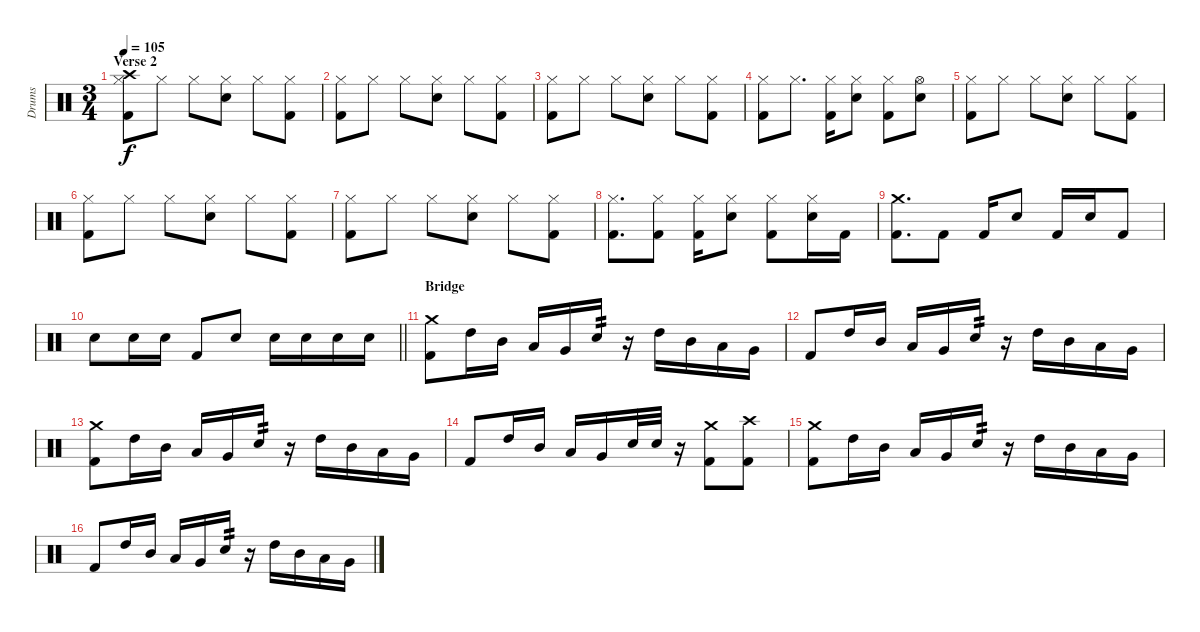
\track ("Drums" "Drums") {instrument percussion}
\staff {score}
\articulation defaults
\ts (3 4)
\section ("" "Verse 2")
\tempo 105
\clef neutral
\ks c
("Crash high (hit)" "Hi-Hat (closed)" "Kick (hit) 2").8{dy f} "Hi-Hat (closed)".8 "Hi-Hat (closed)".8 ("Hi-Hat (closed)" "Electric Snare (hit)").8 "Hi-Hat (closed)".8 ("Hi-Hat (closed)" "Kick (hit) 2").8 |
("Hi-Hat (closed)" "Kick (hit) 2").8 "Hi-Hat (closed)".8 "Hi-Hat (closed)".8 ("Hi-Hat (closed)" "Electric Snare (hit)").8 "Hi-Hat (closed)".8 ("Hi-Hat (closed)" "Kick (hit) 2").8 |
("Hi-Hat (closed)" "Kick (hit) 2").8 "Hi-Hat (closed)".8 "Hi-Hat (closed)".8 ("Hi-Hat (closed)" "Electric Snare (hit)").8 "Hi-Hat (closed)".8 ("Hi-Hat (closed)" "Kick (hit) 2").8 |
("Hi-Hat (closed)" "Kick (hit) 2").8 "Hi-Hat (closed)".8{d} ("Hi-Hat (closed)" "Kick (hit) 2").16 ("Hi-Hat (closed)" "Electric Snare (hit)").8 ("Hi-Hat (closed)" "Kick (hit) 2").8 ("Hi-Hat (open)" "Electric Snare (hit)").8 |
("Hi-Hat (closed)" "Kick (hit) 2").8 "Hi-Hat (closed)".8 "Hi-Hat (closed)".8 ("Hi-Hat (closed)" "Electric Snare (hit)").8 "Hi-Hat (closed)".8 ("Hi-Hat (closed)" "Kick (hit) 2").8 |
("Hi-Hat (closed)" "Kick (hit) 2").8 "Hi-Hat (closed)".8 "Hi-Hat (closed)".8 ("Hi-Hat (closed)" "Electric Snare (hit)").8 "Hi-Hat (closed)".8 ("Hi-Hat (closed)" "Kick (hit) 2").8 |
("Hi-Hat (closed)" "Kick (hit) 2").8 "Hi-Hat (closed)".8 "Hi-Hat (closed)".8 ("Hi-Hat (closed)" "Electric Snare (hit)").8 "Hi-Hat (closed)".8 ("Hi-Hat (closed)" "Kick (hit) 2").8 |
("Hi-Hat (closed)" "Kick (hit) 2").8{d} ("Hi-Hat (closed)" "Kick (hit) 2").8 ("Hi-Hat (closed)" "Kick (hit) 2").16 ("Hi-Hat (closed)" "Electric Snare (hit)").8 ("Hi-Hat (closed)" "Kick (hit) 2").8 ("Hi-Hat (closed)" "Electric Snare (hit)").16 "Kick (hit) 2".16 |
("Crash medium (hit)" "Kick (hit) 2").8{d} "Kick (hit) 2".8 "Kick (hit) 2".16 "Electric Snare (hit)".8 "Kick (hit) 2".16 "Electric Snare (hit)".16 "Kick (hit) 2".8 |
\barLineRight lightlight "Electric Snare (hit)".8 "Electric Snare (hit)".16 "Electric Snare (hit)".16 "Kick (hit) 2".8 "Electric Snare (hit)".8 "Electric Snare (hit)".16 "Electric Snare (hit)".16 "Electric Snare (hit)".16 "Electric Snare (hit)".16
|
\section ("" "Bridge")
("Crash medium (hit)" "Kick (hit) 2").8 "High Tom (hit)".16 "Mid Tom (hit)".16 "Low Tom (hit)".16 "Very Low Tom (hit)".16 "Electric Snare (hit)".16{tp 2} r.16 "High Tom (hit)".16 "Mid Tom (hit)".16 "Low Tom (hit)".16 "Very Low Tom (hit)".16 |
"Kick (hit) 2".8 "High Tom (hit)".16 "Mid Tom (hit)".16 "Low Tom (hit)".16 "Very Low Tom (hit)".16 "Electric Snare (hit)".16{tp 2} r.16 "High Tom (hit)".16 "Mid Tom (hit)".16 "Low Tom (hit)".16 "Very Low Tom (hit)".16 |
("Crash medium (hit)" "Kick (hit) 2").8 "High Tom (hit)".16 "Mid Tom (hit)".16 "Low Tom (hit)".16 "Very Low Tom (hit)".16 "Electric Snare (hit)".16{tp 2} r.16 "High Tom (hit)".16 "Mid Tom (hit)".16 "Low Tom (hit)".16 "Very Low Tom (hit)".16 |
"Kick (hit) 2".8 "High Tom (hit)".16 "Mid Tom (hit)".16 "Low Tom (hit)".16 "Very Low Tom (hit)".16 "Electric Snare (hit)".32 "Electric Snare (hit)".32 r.16 ("Crash medium (hit)" "Kick (hit) 2").8 ("Crash high (hit)" "Kick (hit) 2").8 |
("Crash medium (hit)" "Kick (hit) 2").8 "High Tom (hit)".16 "Mid Tom (hit)".16 "Low Tom (hit)".16 "Very Low Tom (hit)".16 "Electric Snare (hit)".16{tp 2} r.16 "High Tom (hit)".16 "Mid Tom (hit)".16 "Low Tom (hit)".16 "Very Low Tom (hit)".16 |
"Kick (hit) 2".8 "High Tom (hit)".16 "Mid Tom (hit)".16 "Low Tom (hit)".16 "Very Low Tom (hit)".16 "Electric Snare (hit)".16{tp 2} r.16 "High Tom (hit)".16 "Mid Tom (hit)".16 "Low Tom (hit)".16 "Very Low Tom (hit)".16
